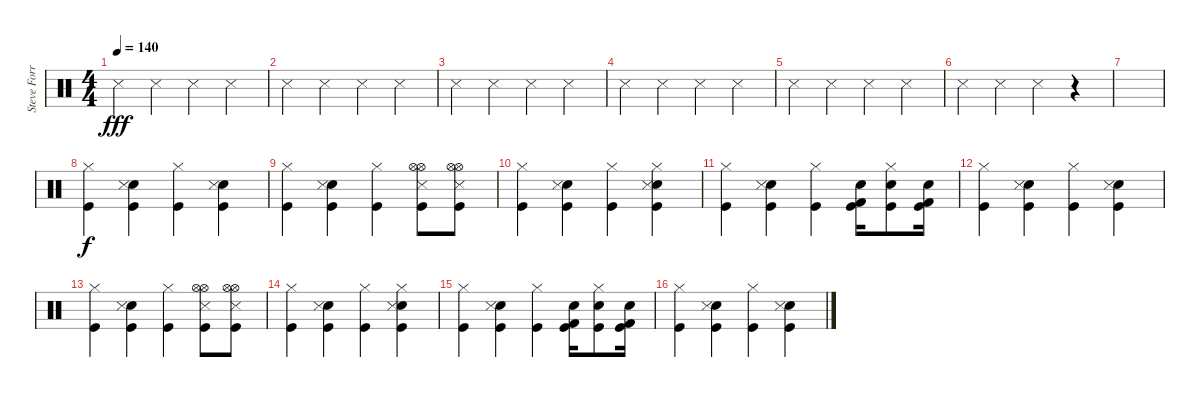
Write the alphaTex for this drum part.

\track ("Steve Forrest - Drums" "Steve Forr") {instrument percussion}
\staff {score}
\articulation defaults
\ts (4 4)
\tempo 140
\clef neutral
\ks c "Snare (side stick) 3".4{dy fff} "Snare (side stick) 3".4 "Snare (side stick) 3".4 "Snare (side stick) 3".4
|
"Snare (side stick) 3".4 "Snare (side stick) 3".4 "Snare (side stick) 3".4 "Snare (side stick) 3".4 |
"Snare (side stick) 3".4 "Snare (side stick) 3".4 "Snare (side stick) 3".4 "Snare (side stick) 3".4 |
"Snare (side stick) 3".4 "Snare (side stick) 3".4 "Snare (side stick) 3".4 "Snare (side stick) 3".4 |
"Snare (side stick) 3".4 "Snare (side stick) 3".4 "Snare (side stick) 3".4 "Snare (side stick) 3".4 |
"Snare (side stick) 3".4 "Snare (side stick) 3".4 "Snare (side stick) 3".4 r.4 |
|
("Hi-Hat (closed)" "Kick (hit)").4{dy f} ("Electric Snare (hit)" "Snare (side stick) 3" "Kick (hit)").4 ("Hi-Hat (closed)" "Kick (hit)").4 ("Electric Snare (hit)" "Snare (side stick) 3" "Kick (hit)").4 |
("Hi-Hat (closed)" "Kick (hit)").4 ("Electric Snare (hit)" "Snare (side stick) 3" "Kick (hit)").4 ("Hi-Hat (closed)" "Kick (hit)").4 ("Hi-Hat (open)" "Hi-Hat (open)" "Snare (side stick) 3" "Kick (hit)").8 ("Hi-Hat (open)" "Hi-Hat (open)" "Snare (side stick) 3" "Kick (hit)").8 |
("Hi-Hat (closed)" "Kick (hit)").4 ("Electric Snare (hit)" "Snare (side stick) 3" "Kick (hit)").4 ("Hi-Hat (closed)" "Kick (hit)").4 ("Electric Snare (hit)" "Snare (side stick) 3" "Hi-Hat (closed)" "Kick (hit)").4 |
("Hi-Hat (closed)" "Kick (hit)").4 ("Electric Snare (hit)" "Snare (side stick) 3" "Kick (hit)").4 ("Hi-Hat (closed)" "Kick (hit)").4 ("Kick (hit) 2" "Electric Snare (hit)" "Kick (hit)").16 ("Hi-Hat (closed)" "Electric Snare (hit)" "Kick (hit)").8 ("Kick (hit) 2" "Electric Snare (hit)" "Kick (hit)").16 |
("Hi-Hat (closed)" "Kick (hit)").4 ("Electric Snare (hit)" "Snare (side stick) 3" "Kick (hit)").4 ("Hi-Hat (closed)" "Kick (hit)").4 ("Electric Snare (hit)" "Snare (side stick) 3" "Kick (hit)").4 |
("Hi-Hat (closed)" "Kick (hit)").4 ("Electric Snare (hit)" "Snare (side stick) 3" "Kick (hit)").4 ("Hi-Hat (closed)" "Kick (hit)").4 ("Hi-Hat (open)" "Hi-Hat (open)" "Snare (side stick) 3" "Kick (hit)").8 ("Hi-Hat (open)" "Hi-Hat (open)" "Snare (side stick) 3" "Kick (hit)").8 |
("Hi-Hat (closed)" "Kick (hit)").4 ("Electric Snare (hit)" "Snare (side stick) 3" "Kick (hit)").4 ("Hi-Hat (closed)" "Kick (hit)").4 ("Electric Snare (hit)" "Snare (side stick) 3" "Hi-Hat (closed)" "Kick (hit)").4 |
("Hi-Hat (closed)" "Kick (hit)").4 ("Electric Snare (hit)" "Snare (side stick) 3" "Kick (hit)").4 ("Hi-Hat (closed)" "Kick (hit)").4 ("Kick (hit) 2" "Electric Snare (hit)" "Kick (hit)").16 ("Hi-Hat (closed)" "Electric Snare (hit)" "Kick (hit)").8 ("Kick (hit) 2" "Electric Snare (hit)" "Kick (hit)").16 |
("Hi-Hat (closed)" "Kick (hit)").4 ("Electric Snare (hit)" "Snare (side stick) 3" "Kick (hit)").4 ("Hi-Hat (closed)" "Kick (hit)").4 ("Electric Snare (hit)" "Snare (side stick) 3" "Kick (hit)").4
